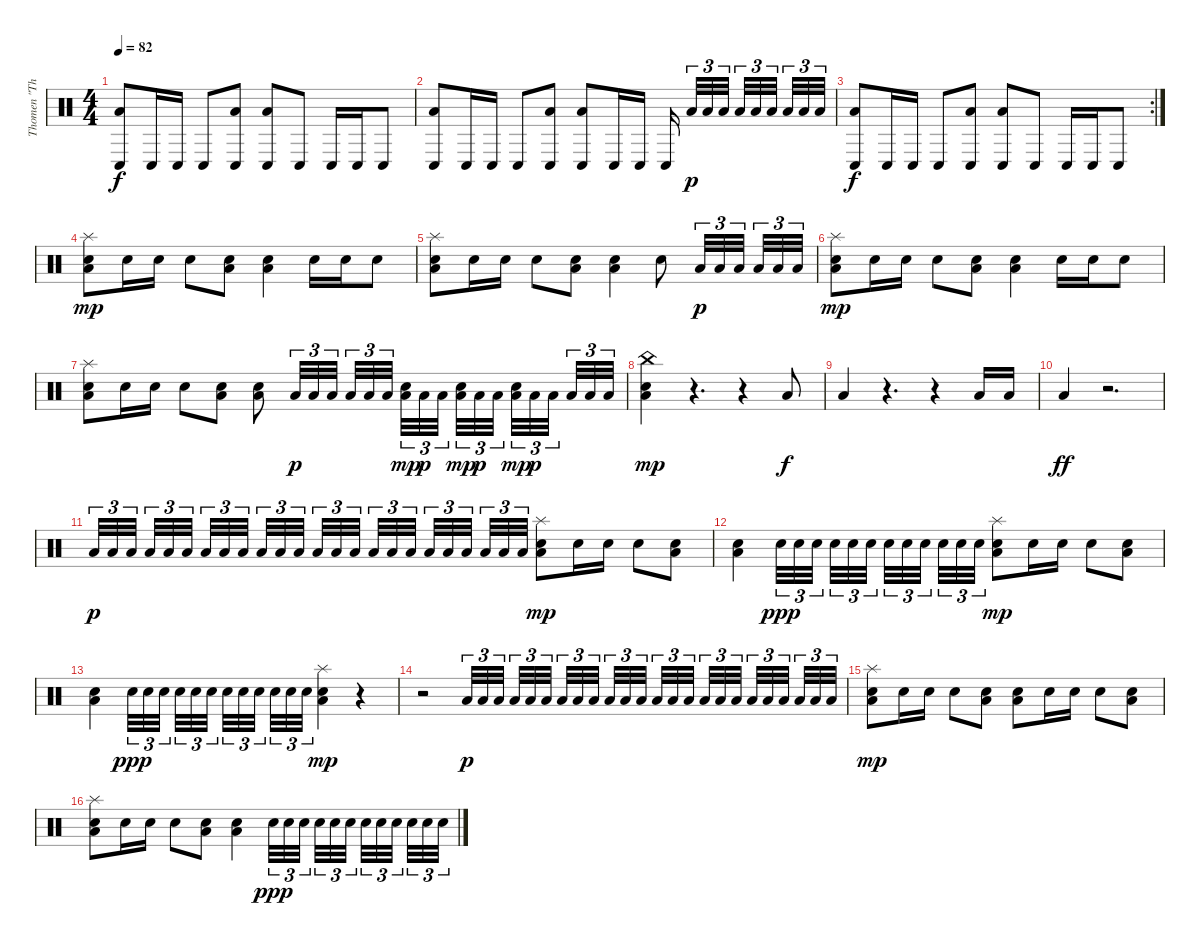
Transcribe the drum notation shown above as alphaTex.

\track ("Thomen \"The Omen\" Stauch " "Thomen \"Th") {instrument percussion}
\staff {score}
\articulation defaults
\ts (4 4)
\tempo 82
\clef neutral
\ks c
("Low Floor Tom (hit)" "Conga low (hit)").8{dy f} "Conga low (hit)".16 "Conga low (hit)".16 "Conga low (hit)".8 ("Low Floor Tom (hit)" "Conga low (hit)").8 ("Low Floor Tom (hit)" "Conga low (hit)").8 "Conga low (hit)".8 "Conga low (hit)".16 "Conga low (hit)".16 "Conga low (hit)".8 |
("Low Floor Tom (hit)" "Conga low (hit)").8 "Conga low (hit)".16 "Conga low (hit)".16 "Conga low (hit)".8 ("Low Floor Tom (hit)" "Conga low (hit)").8 ("Low Floor Tom (hit)" "Conga low (hit)").8 "Conga low (hit)".16 "Conga low (hit)".16 "Conga low (hit)".16 "Low Floor Tom (hit)".32{tu (3 2) dy p} "Low Floor Tom (hit)".32{tu (3 2)} "Low Floor Tom (hit)".32{tu (3 2)} "Low Floor Tom (hit)".32{tu (3 2)} "Low Floor Tom (hit)".32{tu (3 2)} "Low Floor Tom (hit)".32{tu (3 2)} "Low Floor Tom (hit)".32{tu (3 2)} "Low Floor Tom (hit)".32{tu (3 2)} "Low Floor Tom (hit)".32{tu (3 2)} |
\rc 2
("Low Floor Tom (hit)" "Conga low (hit)").8{dy f} "Conga low (hit)".16 "Conga low (hit)".16 "Conga low (hit)".8 ("Low Floor Tom (hit)" "Conga low (hit)").8 ("Low Floor Tom (hit)" "Conga low (hit)").8 "Conga low (hit)".8 "Conga low (hit)".16 "Conga low (hit)".16 "Conga low (hit)".8 |
("Low Floor Tom (hit)" "Snare (hit) 2" "Splash (hit)").8{dy mp} "Snare (hit) 2".16 "Snare (hit) 2".16 "Snare (hit) 2".8 ("Low Floor Tom (hit)" "Snare (hit) 2").8 ("Low Floor Tom (hit)" "Snare (hit) 2").4 "Snare (hit) 2".16 "Snare (hit) 2".16 "Snare (hit) 2".8 |
("Low Floor Tom (hit)" "Snare (hit) 2" "Splash (hit)").8 "Snare (hit) 2".16 "Snare (hit) 2".16 "Snare (hit) 2".8 ("Low Floor Tom (hit)" "Snare (hit) 2").8 ("Low Floor Tom (hit)" "Snare (hit) 2").4 "Snare (hit) 2".8 "Low Floor Tom (hit)".32{tu (3 2) dy p} "Low Floor Tom (hit)".32{tu (3 2)} "Low Floor Tom (hit)".32{tu (3 2)} "Low Floor Tom (hit)".32{tu (3 2)} "Low Floor Tom (hit)".32{tu (3 2)} "Low Floor Tom (hit)".32{tu (3 2)} |
("Low Floor Tom (hit)" "Snare (hit) 2" "Splash (hit)").8{dy mp} "Snare (hit) 2".16 "Snare (hit) 2".16 "Snare (hit) 2".8 ("Low Floor Tom (hit)" "Snare (hit) 2").8 ("Low Floor Tom (hit)" "Snare (hit) 2").4 "Snare (hit) 2".16 "Snare (hit) 2".16 "Snare (hit) 2".8 |
("Low Floor Tom (hit)" "Snare (hit) 2" "Splash (hit)").8 "Snare (hit) 2".16 "Snare (hit) 2".16 "Snare (hit) 2".8 ("Low Floor Tom (hit)" "Snare (hit) 2").8 ("Low Floor Tom (hit)" "Snare (hit) 2").8 "Low Floor Tom (hit)".32{tu (3 2) dy p} "Low Floor Tom (hit)".32{tu (3 2)} "Low Floor Tom (hit)".32{tu (3 2)} "Low Floor Tom (hit)".32{tu (3 2)} "Low Floor Tom (hit)".32{tu (3 2)} "Low Floor Tom (hit)".32{tu (3 2)} ("Low Floor Tom (hit)" "Snare (hit) 2").32{tu (3 2) dy mp} "Low Floor Tom (hit)".32{tu (3 2) dy p} "Low Floor Tom (hit)".32{tu (3 2)} ("Low Floor Tom (hit)" "Snare (hit) 2").32{tu (3 2) dy mp} "Low Floor Tom (hit)".32{tu (3 2) dy p} "Low Floor Tom (hit)".32{tu (3 2)} ("Low Floor Tom (hit)" "Snare (hit) 2").32{tu (3 2) dy mp} "Low Floor Tom (hit)".32{tu (3 2) dy p} "Low Floor Tom (hit)".32{tu (3 2)} "Low Floor Tom (hit)".32{tu (3 2)} "Low Floor Tom (hit)".32{tu (3 2)} "Low Floor Tom (hit)".32{tu (3 2)} |
("Low Floor Tom (hit)" "Snare (hit) 2" "China (hit)").4{dy mp} r.4{d} r.4 "Low Floor Tom (hit)".8{dy f} |
"Low Floor Tom (hit)".4 r.4{d} r.4 "Low Floor Tom (hit)".16 "Low Floor Tom (hit)".16 |
"Low Floor Tom (hit)".4{dy ff} r.2{d} |
"Low Floor Tom (hit)".32{tu (3 2) dy p} "Low Floor Tom (hit)".32{tu (3 2)} "Low Floor Tom (hit)".32{tu (3 2)} "Low Floor Tom (hit)".32{tu (3 2)} "Low Floor Tom (hit)".32{tu (3 2)} "Low Floor Tom (hit)".32{tu (3 2)} "Low Floor Tom (hit)".32{tu (3 2)} "Low Floor Tom (hit)".32{tu (3 2)} "Low Floor Tom (hit)".32{tu (3 2)} "Low Floor Tom (hit)".32{tu (3 2)} "Low Floor Tom (hit)".32{tu (3 2)} "Low Floor Tom (hit)".32{tu (3 2)} "Low Floor Tom (hit)".32{tu (3 2)} "Low Floor Tom (hit)".32{tu (3 2)} "Low Floor Tom (hit)".32{tu (3 2)} "Low Floor Tom (hit)".32{tu (3 2)} "Low Floor Tom (hit)".32{tu (3 2)} "Low Floor Tom (hit)".32{tu (3 2)} "Low Floor Tom (hit)".32{tu (3 2)} "Low Floor Tom (hit)".32{tu (3 2)} "Low Floor Tom (hit)".32{tu (3 2)} "Low Floor Tom (hit)".32{tu (3 2)} "Low Floor Tom (hit)".32{tu (3 2)} "Low Floor Tom (hit)".32{tu (3 2)} ("Low Floor Tom (hit)" "Snare (hit) 2" "Splash (hit)").8{dy mp} "Snare (hit) 2".16 "Snare (hit) 2".16 "Snare (hit) 2".8 ("Low Floor Tom (hit)" "Snare (hit) 2").8 |
("Low Floor Tom (hit)" "Snare (hit) 2").4 "Snare (hit) 2".32{tu (3 2) dy ppp} "Snare (hit) 2".32{tu (3 2)} "Snare (hit) 2".32{tu (3 2)} "Snare (hit) 2".32{tu (3 2)} "Snare (hit) 2".32{tu (3 2)} "Snare (hit) 2".32{tu (3 2)} "Snare (hit) 2".32{tu (3 2)} "Snare (hit) 2".32{tu (3 2)} "Snare (hit) 2".32{tu (3 2)} "Snare (hit) 2".32{tu (3 2)} "Snare (hit) 2".32{tu (3 2)} "Snare (hit) 2".32{tu (3 2)} ("Low Floor Tom (hit)" "Snare (hit) 2" "Splash (hit)").8{dy mp} "Snare (hit) 2".16 "Snare (hit) 2".16 "Snare (hit) 2".8 ("Low Floor Tom (hit)" "Snare (hit) 2").8 |
("Low Floor Tom (hit)" "Snare (hit) 2").4 "Snare (hit) 2".32{tu (3 2) dy ppp} "Snare (hit) 2".32{tu (3 2)} "Snare (hit) 2".32{tu (3 2)} "Snare (hit) 2".32{tu (3 2)} "Snare (hit) 2".32{tu (3 2)} "Snare (hit) 2".32{tu (3 2)} "Snare (hit) 2".32{tu (3 2)} "Snare (hit) 2".32{tu (3 2)} "Snare (hit) 2".32{tu (3 2)} "Snare (hit) 2".32{tu (3 2)} "Snare (hit) 2".32{tu (3 2)} "Snare (hit) 2".32{tu (3 2)} ("Low Floor Tom (hit)" "Snare (hit) 2" "Splash (hit)").4{dy mp} r.4 |
r.2 "Low Floor Tom (hit)".32{tu (3 2) dy p} "Low Floor Tom (hit)".32{tu (3 2)} "Low Floor Tom (hit)".32{tu (3 2)} "Low Floor Tom (hit)".32{tu (3 2)} "Low Floor Tom (hit)".32{tu (3 2)} "Low Floor Tom (hit)".32{tu (3 2)} "Low Floor Tom (hit)".32{tu (3 2)} "Low Floor Tom (hit)".32{tu (3 2)} "Low Floor Tom (hit)".32{tu (3 2)} "Low Floor Tom (hit)".32{tu (3 2)} "Low Floor Tom (hit)".32{tu (3 2)} "Low Floor Tom (hit)".32{tu (3 2)} "Low Floor Tom (hit)".32{tu (3 2)} "Low Floor Tom (hit)".32{tu (3 2)} "Low Floor Tom (hit)".32{tu (3 2)} "Low Floor Tom (hit)".32{tu (3 2)} "Low Floor Tom (hit)".32{tu (3 2)} "Low Floor Tom (hit)".32{tu (3 2)} "Low Floor Tom (hit)".32{tu (3 2)} "Low Floor Tom (hit)".32{tu (3 2)} "Low Floor Tom (hit)".32{tu (3 2)} "Low Floor Tom (hit)".32{tu (3 2)} "Low Floor Tom (hit)".32{tu (3 2)} "Low Floor Tom (hit)".32{tu (3 2)} |
("Low Floor Tom (hit)" "Snare (hit) 2" "Splash (hit)").8{dy mp} "Snare (hit) 2".16 "Snare (hit) 2".16 "Snare (hit) 2".8 ("Low Floor Tom (hit)" "Snare (hit) 2").8 ("Low Floor Tom (hit)" "Snare (hit) 2").8 "Snare (hit) 2".16 "Snare (hit) 2".16 "Snare (hit) 2".8 ("Low Floor Tom (hit)" "Snare (hit) 2").8 |
("Low Floor Tom (hit)" "Snare (hit) 2" "Splash (hit)").8 "Snare (hit) 2".16 "Snare (hit) 2".16 "Snare (hit) 2".8 ("Low Floor Tom (hit)" "Snare (hit) 2").8 ("Low Floor Tom (hit)" "Snare (hit) 2").4 "Snare (hit) 2".32{tu (3 2) dy ppp} "Snare (hit) 2".32{tu (3 2)} "Snare (hit) 2".32{tu (3 2)} "Snare (hit) 2".32{tu (3 2)} "Snare (hit) 2".32{tu (3 2)} "Snare (hit) 2".32{tu (3 2)} "Snare (hit) 2".32{tu (3 2)} "Snare (hit) 2".32{tu (3 2)} "Snare (hit) 2".32{tu (3 2)} "Snare (hit) 2".32{tu (3 2)} "Snare (hit) 2".32{tu (3 2)} "Snare (hit) 2".32{tu (3 2)}
